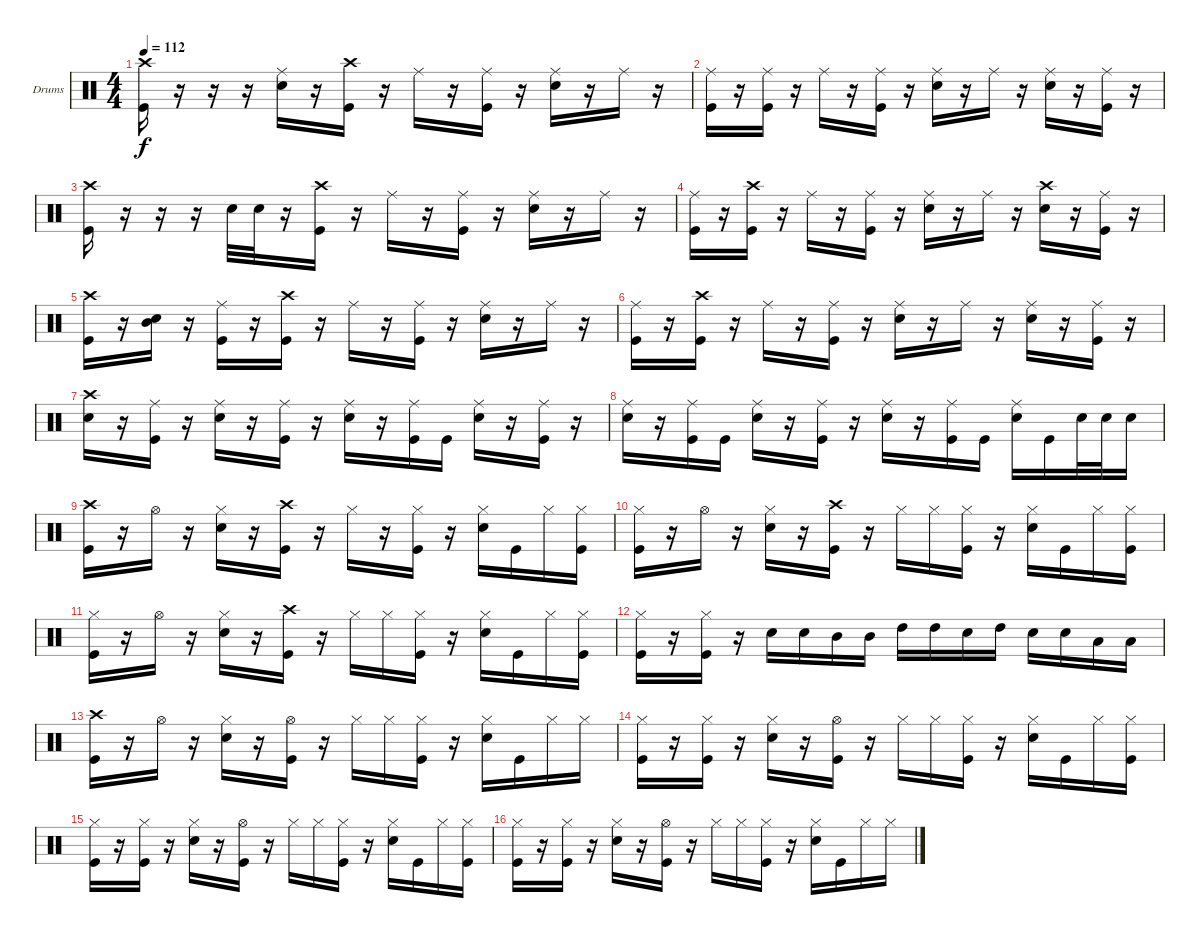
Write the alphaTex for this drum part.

\bracketExtendMode groupsimilarinstruments
\firstSystemTrackNameOrientation horizontal
\otherSystemsTrackNameOrientation horizontal
\track ("Drumkit" "Drums") {instrument percussion}
\staff {score}
\articulation defaults
\ts (4 4)
\beaming (8 2 2 2 2)
\tempo 112
\clef neutral
\ks c
("Crash high (hit)" "Kick (hit)").16{dy f} r.16 r.16 r.16 ("Ride (middle)" "Snare (hit) 2").16 r.16 ("Crash high (hit)" "Kick (hit)").16 r.16 "Ride (middle)".16 r.16 ("Ride (middle)" "Kick (hit)").16 r.16 ("Ride (middle)" "Snare (hit) 2").16 r.16 "Ride (middle)".16 r.16 |
("Ride (middle)" "Kick (hit)").16 r.16 ("Ride (middle)" "Kick (hit)").16 r.16 "Ride (middle)".16 r.16 ("Ride (middle)" "Kick (hit)").16 r.16 ("Ride (middle)" "Snare (hit) 2").16 r.16 "Ride (middle)".16 r.16 ("Ride (middle)" "Snare (hit) 2").16 r.16 ("Ride (middle)" "Kick (hit)").16 r.16 |
("Crash high (hit)" "Kick (hit)").16 r.16 r.16 r.16 "Snare (hit) 2".32 "Snare (hit) 2".32 r.16 ("Crash high (hit)" "Kick (hit)").16 r.16 "Ride (middle)".16 r.16 ("Ride (middle)" "Kick (hit)").16 r.16 ("Ride (middle)" "Snare (hit) 2").16 r.16 "Ride (middle)".16 r.16 |
("Ride (middle)" "Kick (hit)").16 r.16 ("Crash high (hit)" "Kick (hit)").16 r.16 "Ride (middle)".16 r.16 ("Ride (middle)" "Kick (hit)").16 r.16 ("Ride (middle)" "Snare (hit) 2").16 r.16 "Ride (middle)".16 r.16 ("Crash high (hit)" "Snare (hit) 2").16 r.16 ("Ride (middle)" "Kick (hit)").16 r.16 |
("Crash high (hit)" "Kick (hit)").16 r.16 ("Snare (hit) 2" "Mid Tom (hit)").16 r.16 ("Ride (middle)" "Kick (hit)").16 r.16 ("Crash high (hit)" "Kick (hit)").16 r.16 "Ride (middle)".16 r.16 ("Ride (middle)" "Kick (hit)").16 r.16 ("Ride (middle)" "Snare (hit) 2").16 r.16 "Ride (middle)".16 r.16 |
("Ride (middle)" "Kick (hit)").16 r.16 ("Crash high (hit)" "Kick (hit)").16 r.16 "Ride (middle)".16 r.16 ("Ride (middle)" "Kick (hit)").16 r.16 ("Ride (middle)" "Snare (hit) 2").16 r.16 "Ride (middle)".16 r.16 ("Ride (middle)" "Snare (hit) 2").16 r.16 ("Ride (middle)" "Kick (hit)").16 r.16 |
("Crash high (hit)" "Snare (hit) 2").16 r.16 ("Ride (middle)" "Kick (hit)").16 r.16 ("Ride (middle)" "Snare (hit) 2").16 r.16 ("Ride (middle)" "Kick (hit)").16 r.16 ("Ride (middle)" "Snare (hit) 2").16 r.16 ("Ride (middle)" "Kick (hit)").16 "Kick (hit)".16 ("Ride (middle)" "Snare (hit) 2").16 r.16 ("Ride (middle)" "Kick (hit)").16 r.16 |
("Ride (middle)" "Snare (hit) 2").16 r.16 ("Ride (middle)" "Kick (hit)").16 "Kick (hit)".16 ("Ride (middle)" "Snare (hit) 2").16 r.16 ("Ride (middle)" "Kick (hit)").16 r.16 ("Ride (middle)" "Snare (hit) 2").16 r.16 ("Ride (middle)" "Kick (hit)").16 "Kick (hit)".16 ("Ride (middle)" "Snare (hit) 2").16 "Kick (hit)".16 "Snare (hit) 2".32 "Snare (hit) 2".32 "Snare (hit) 2".16 |
("Crash high (hit)" "Kick (hit)").16 r.16 "Hi-Hat (open)".16 r.16 ("Hi-Hat (closed)" "Snare (hit) 2").16 r.16 ("Crash high (hit)" "Kick (hit)").16 r.16 "Hi-Hat (closed)".16 r.16 ("Hi-Hat (closed)" "Kick (hit)").16 r.16 ("Hi-Hat (closed)" "Snare (hit) 2").16 "Kick (hit)".16 "Hi-Hat (closed)".16 ("Hi-Hat (closed)" "Kick (hit)").16 |
("Hi-Hat (closed)" "Kick (hit)").16 r.16 "Hi-Hat (open)".16 r.16 ("Hi-Hat (closed)" "Snare (hit) 2").16 r.16 ("Crash high (hit)" "Kick (hit)").16 r.16 "Hi-Hat (closed)".16 "Hi-Hat (closed)".16 ("Hi-Hat (closed)" "Kick (hit)").16 r.16 ("Hi-Hat (closed)" "Snare (hit) 2").16 "Kick (hit)".16 "Hi-Hat (closed)".16 ("Hi-Hat (closed)" "Kick (hit)").16 |
("Hi-Hat (closed)" "Kick (hit)").16 r.16 "Hi-Hat (open)".16 r.16 ("Hi-Hat (closed)" "Snare (hit) 2").16 r.16 ("Crash high (hit)" "Kick (hit)").16 r.16 "Hi-Hat (closed)".16 "Hi-Hat (closed)".16 ("Hi-Hat (closed)" "Kick (hit)").16 r.16 ("Hi-Hat (closed)" "Snare (hit) 2").16 "Kick (hit)".16 "Hi-Hat (closed)".16 ("Hi-Hat (closed)" "Kick (hit)").16 |
("Hi-Hat (closed)" "Kick (hit)").16 r.16 ("Hi-Hat (closed)" "Kick (hit)").16 r.16 "Snare (hit) 2".16 "Snare (hit) 2".16 "Mid Tom (hit)".16 "Mid Tom (hit)".16 "High Tom (hit)".16 "High Tom (hit)".16 "Snare (hit) 2".16 "High Tom (hit)".16 "Snare (hit) 2".16 "Snare (hit) 2".16 "Low Tom (hit)".16 "Low Tom (hit)".16 |
("Crash high (hit)" "Kick (hit)").16 r.16 "Hi-Hat (open)".16 r.16 ("Hi-Hat (closed)" "Snare (hit) 2").16 r.16 ("Hi-Hat (open)" "Kick (hit)").16 r.16 "Hi-Hat (closed)".16 "Hi-Hat (closed)".16 ("Hi-Hat (closed)" "Kick (hit)").16 r.16 ("Hi-Hat (closed)" "Snare (hit) 2").16 "Kick (hit)".16 "Hi-Hat (closed)".16 "Hi-Hat (closed)".16 |
("Hi-Hat (closed)" "Kick (hit)").16 r.16 ("Hi-Hat (closed)" "Kick (hit)").16 r.16 ("Hi-Hat (closed)" "Snare (hit) 2").16 r.16 ("Hi-Hat (open)" "Kick (hit)").16 r.16 "Hi-Hat (closed)".16 "Hi-Hat (closed)".16 ("Hi-Hat (closed)" "Kick (hit)").16 r.16 ("Hi-Hat (closed)" "Snare (hit) 2").16 "Kick (hit)".16 "Hi-Hat (closed)".16 ("Hi-Hat (closed)" "Kick (hit)").16 |
("Hi-Hat (closed)" "Kick (hit)").16 r.16 ("Hi-Hat (closed)" "Kick (hit)").16 r.16 ("Hi-Hat (closed)" "Snare (hit) 2").16 r.16 ("Hi-Hat (open)" "Kick (hit)").16 r.16 "Hi-Hat (closed)".16 "Hi-Hat (closed)".16 ("Hi-Hat (closed)" "Kick (hit)").16 r.16 ("Hi-Hat (closed)" "Snare (hit) 2").16 "Kick (hit)".16 "Hi-Hat (closed)".16 ("Hi-Hat (closed)" "Kick (hit)").16 |
("Hi-Hat (closed)" "Kick (hit)").16 r.16 ("Hi-Hat (closed)" "Kick (hit)").16 r.16 ("Hi-Hat (closed)" "Snare (hit) 2").16 r.16 ("Hi-Hat (open)" "Kick (hit)").16 r.16 "Hi-Hat (closed)".16 "Hi-Hat (closed)".16 ("Hi-Hat (closed)" "Kick (hit)").16 r.16 ("Hi-Hat (closed)" "Snare (hit) 2").16 "Kick (hit)".16 "Hi-Hat (closed)".16 "Hi-Hat (closed)".16
